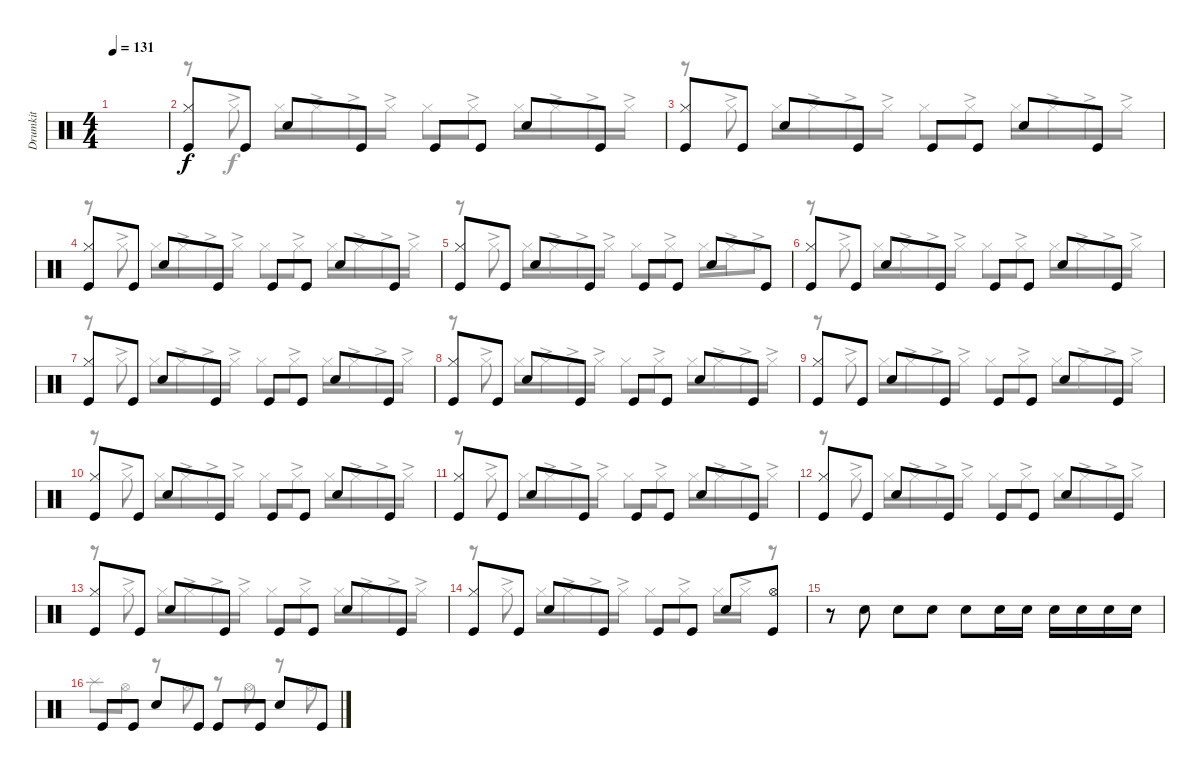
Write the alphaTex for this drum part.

\track ("Drumkit" "Drumkit") {instrument percussion}
\staff {score}
\articulation defaults
\voice
\ts (4 4)
\tempo 131
\clef neutral
\ks c
|
("Kick (hit)" "Hi-Hat (closed)").8 "Kick (hit)".8 "Snare (hit) 2".8 "Kick (hit)".8 "Kick (hit)".8 "Kick (hit)".8 "Snare (hit) 2".8 "Kick (hit)".8 |
("Kick (hit)" "Hi-Hat (closed)").8 "Kick (hit)".8 "Snare (hit) 2".8 "Kick (hit)".8 "Kick (hit)".8 "Kick (hit)".8 "Snare (hit) 2".8 "Kick (hit)".8 |
("Kick (hit)" "Hi-Hat (closed)").8 "Kick (hit)".8 "Snare (hit) 2".8 "Kick (hit)".8 "Kick (hit)".8 "Kick (hit)".8 "Snare (hit) 2".8 "Kick (hit)".8 |
("Kick (hit)" "Hi-Hat (closed)").8 "Kick (hit)".8 "Snare (hit) 2".8 "Kick (hit)".8 "Kick (hit)".8 "Kick (hit)".8 "Snare (hit) 2".8 "Kick (hit)".8 |
("Kick (hit)" "Hi-Hat (closed)").8 "Kick (hit)".8 "Snare (hit) 2".8 "Kick (hit)".8 "Kick (hit)".8 "Kick (hit)".8 "Snare (hit) 2".8 "Kick (hit)".8 |
("Kick (hit)" "Hi-Hat (closed)").8 "Kick (hit)".8 "Snare (hit) 2".8 "Kick (hit)".8 "Kick (hit)".8 "Kick (hit)".8 "Snare (hit) 2".8 "Kick (hit)".8 |
("Kick (hit)" "Hi-Hat (closed)").8 "Kick (hit)".8 "Snare (hit) 2".8 "Kick (hit)".8 "Kick (hit)".8 "Kick (hit)".8 "Snare (hit) 2".8 "Kick (hit)".8 |
("Kick (hit)" "Hi-Hat (closed)").8 "Kick (hit)".8 "Snare (hit) 2".8 "Kick (hit)".8 "Kick (hit)".8 "Kick (hit)".8 "Snare (hit) 2".8 "Kick (hit)".8 |
("Kick (hit)" "Hi-Hat (closed)").8 "Kick (hit)".8 "Snare (hit) 2".8 "Kick (hit)".8 "Kick (hit)".8 "Kick (hit)".8 "Snare (hit) 2".8 "Kick (hit)".8 |
("Kick (hit)" "Hi-Hat (closed)").8 "Kick (hit)".8 "Snare (hit) 2".8 "Kick (hit)".8 "Kick (hit)".8 "Kick (hit)".8 "Snare (hit) 2".8 "Kick (hit)".8 |
("Kick (hit)" "Hi-Hat (closed)").8 "Kick (hit)".8 "Snare (hit) 2".8 "Kick (hit)".8 "Kick (hit)".8 "Kick (hit)".8 "Snare (hit) 2".8 "Kick (hit)".8 |
("Kick (hit)" "Hi-Hat (closed)").8 "Kick (hit)".8 "Snare (hit) 2".8 "Kick (hit)".8 "Kick (hit)".8 "Kick (hit)".8 "Snare (hit) 2".8 "Kick (hit)".8 |
("Kick (hit)" "Hi-Hat (closed)").8 "Kick (hit)".8 "Snare (hit) 2".8 "Kick (hit)".8 "Kick (hit)".8 "Kick (hit)".8 "Snare (hit) 2".8 ("Kick (hit)" "Hi-Hat (open)").8 |
r.8 "Snare (hit) 2".8 "Snare (hit) 2".8 "Snare (hit) 2".8 "Snare (hit) 2".8 "Snare (hit) 2".16 "Snare (hit) 2".16 "Snare (hit) 2".16 "Snare (hit) 2".16 "Snare (hit) 2".16 "Snare (hit) 2".16 |
"Kick (hit)".8 "Kick (hit)".8 "Snare (hit) 2".8 "Kick (hit)".8 "Kick (hit)".8 "Kick (hit)".8 "Snare (hit) 2".8 "Kick (hit)".8
\voice
\clef neutral
\ottava regular
\simile none
\ks c
|
r.8 "Hi-Hat (closed)"{ac}.8 "Hi-Hat (closed)".16 "Hi-Hat (closed)"{ac}.16 "Hi-Hat (closed)"{ac}.16 "Hi-Hat (closed)"{ac}.16 "Hi-Hat (closed)".8 "Hi-Hat (closed)"{ac}.8 "Hi-Hat (closed)".16 "Hi-Hat (closed)"{ac}.16 "Hi-Hat (closed)"{ac}.16 "Hi-Hat (closed)"{ac}.16 |
r.8 "Hi-Hat (closed)"{ac}.8 "Hi-Hat (closed)".16 "Hi-Hat (closed)"{ac}.16 "Hi-Hat (closed)"{ac}.16 "Hi-Hat (closed)"{ac}.16 "Hi-Hat (closed)".8 "Hi-Hat (closed)"{ac}.8 "Hi-Hat (closed)".16 "Hi-Hat (closed)"{ac}.16 "Hi-Hat (closed)"{ac}.16 "Hi-Hat (closed)"{ac}.16 |
r.8 "Hi-Hat (closed)"{ac}.8 "Hi-Hat (closed)".16 "Hi-Hat (closed)"{ac}.16 "Hi-Hat (closed)"{ac}.16 "Hi-Hat (closed)"{ac}.16 "Hi-Hat (closed)".8 "Hi-Hat (closed)"{ac}.8 "Hi-Hat (closed)".16 "Hi-Hat (closed)"{ac}.16 "Hi-Hat (closed)"{ac}.16 "Hi-Hat (closed)"{ac}.16 |
r.8 "Hi-Hat (closed)"{ac}.8 "Hi-Hat (closed)".16 "Hi-Hat (closed)"{ac}.16 "Hi-Hat (closed)"{ac}.16 "Hi-Hat (closed)"{ac}.16 "Hi-Hat (closed)".8 "Hi-Hat (closed)"{ac}.8 "Hi-Hat (closed)".16 "Hi-Hat (closed)"{ac}.16 "Hi-Hat (open)"{ac}.8 |
r.8 "Hi-Hat (closed)"{ac}.8 "Hi-Hat (closed)".16 "Hi-Hat (closed)"{ac}.16 "Hi-Hat (closed)"{ac}.16 "Hi-Hat (closed)"{ac}.16 "Hi-Hat (closed)".8 "Hi-Hat (closed)"{ac}.8 "Hi-Hat (closed)".16 "Hi-Hat (closed)"{ac}.16 "Hi-Hat (closed)"{ac}.16 "Hi-Hat (closed)"{ac}.16 |
r.8 "Hi-Hat (closed)"{ac}.8 "Hi-Hat (closed)".16 "Hi-Hat (closed)"{ac}.16 "Hi-Hat (closed)"{ac}.16 "Hi-Hat (closed)"{ac}.16 "Hi-Hat (closed)".8 "Hi-Hat (closed)"{ac}.8 "Hi-Hat (closed)".16 "Hi-Hat (closed)"{ac}.16 "Hi-Hat (closed)"{ac}.16 "Hi-Hat (closed)"{ac}.16 |
r.8 "Hi-Hat (closed)"{ac}.8 "Hi-Hat (closed)".16 "Hi-Hat (closed)"{ac}.16 "Hi-Hat (closed)"{ac}.16 "Hi-Hat (closed)"{ac}.16 "Hi-Hat (closed)".8 "Hi-Hat (closed)"{ac}.8 "Hi-Hat (closed)".16 "Hi-Hat (closed)"{ac}.16 "Hi-Hat (closed)"{ac}.16 "Hi-Hat (closed)"{ac}.16 |
r.8 "Hi-Hat (closed)"{ac}.8 "Hi-Hat (closed)".16 "Hi-Hat (closed)"{ac}.16 "Hi-Hat (closed)"{ac}.16 "Hi-Hat (closed)"{ac}.16 "Hi-Hat (closed)".8 "Hi-Hat (closed)"{ac}.8 "Hi-Hat (closed)".16 "Hi-Hat (closed)"{ac}.16 "Hi-Hat (closed)"{ac}.16 "Hi-Hat (closed)"{ac}.16 |
r.8 "Hi-Hat (closed)"{ac}.8 "Hi-Hat (closed)".16 "Hi-Hat (closed)"{ac}.16 "Hi-Hat (closed)"{ac}.16 "Hi-Hat (closed)"{ac}.16 "Hi-Hat (closed)".8 "Hi-Hat (closed)"{ac}.8 "Hi-Hat (closed)".16 "Hi-Hat (closed)"{ac}.16 "Hi-Hat (closed)"{ac}.16 "Hi-Hat (closed)"{ac}.16 |
r.8 "Hi-Hat (closed)"{ac}.8 "Hi-Hat (closed)".16 "Hi-Hat (closed)"{ac}.16 "Hi-Hat (closed)"{ac}.16 "Hi-Hat (closed)"{ac}.16 "Hi-Hat (closed)".8 "Hi-Hat (closed)"{ac}.8 "Hi-Hat (closed)".16 "Hi-Hat (closed)"{ac}.16 "Hi-Hat (closed)"{ac}.16 "Hi-Hat (closed)"{ac}.16 |
r.8 "Hi-Hat (closed)"{ac}.8 "Hi-Hat (closed)".16 "Hi-Hat (closed)"{ac}.16 "Hi-Hat (closed)"{ac}.16 "Hi-Hat (closed)"{ac}.16 "Hi-Hat (closed)".8 "Hi-Hat (closed)"{ac}.8 "Hi-Hat (closed)".16 "Hi-Hat (closed)"{ac}.16 "Hi-Hat (closed)"{ac}.16 "Hi-Hat (closed)"{ac}.16 |
r.8 "Hi-Hat (closed)"{ac}.8 "Hi-Hat (closed)".16 "Hi-Hat (closed)"{ac}.16 "Hi-Hat (closed)"{ac}.16 "Hi-Hat (closed)"{ac}.16 "Hi-Hat (closed)".8 "Hi-Hat (closed)"{ac}.8 "Hi-Hat (closed)".16 "Hi-Hat (closed)"{ac}.16 "Hi-Hat (closed)"{ac}.16 "Hi-Hat (closed)"{ac}.16 |
r.8 "Hi-Hat (closed)"{ac}.8 "Hi-Hat (closed)".16 "Hi-Hat (closed)"{ac}.16 "Hi-Hat (closed)"{ac}.16 "Hi-Hat (closed)"{ac}.16 "Hi-Hat (closed)".8 "Hi-Hat (closed)"{ac}.8 "Hi-Hat (closed)".16 "Hi-Hat (closed)"{ac}.16 r.8 |
|
"Splash (hit)".8 "Hi-Hat (open)".8 r.8 "Hi-Hat (open)".8 r.8 "Hi-Hat (open)".8 r.8 "Hi-Hat (open)".8
